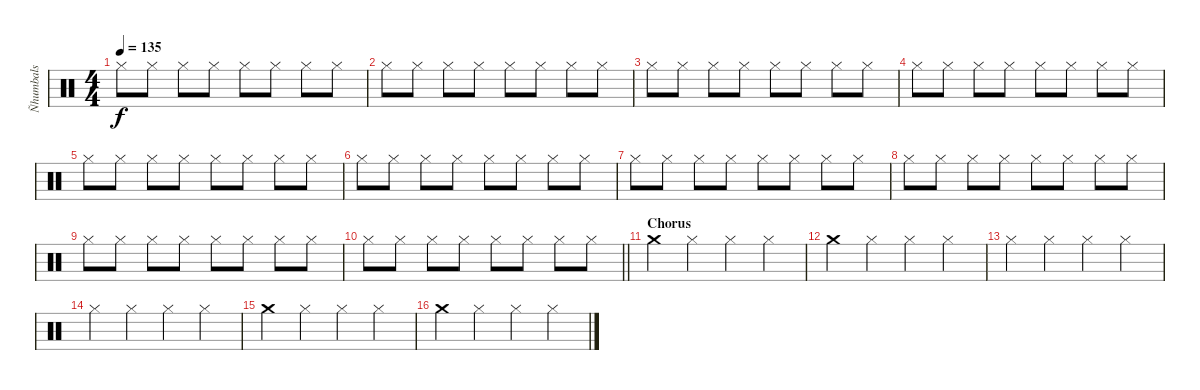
\track ("Ñhumbals" "Ñhumbals") {instrument percussion}
\staff {score}
\articulation defaults
\ts (4 4)
\tempo 135
\clef neutral
\ks c "Hi-Hat (closed)".8{dy f} "Hi-Hat (closed)".8 "Hi-Hat (closed)".8 "Hi-Hat (closed)".8 "Hi-Hat (closed)".8 "Hi-Hat (closed)".8 "Hi-Hat (closed)".8 "Hi-Hat (closed)".8
|
"Hi-Hat (closed)".8 "Hi-Hat (closed)".8 "Hi-Hat (closed)".8 "Hi-Hat (closed)".8 "Hi-Hat (closed)".8 "Hi-Hat (closed)".8 "Hi-Hat (closed)".8 "Hi-Hat (closed)".8 |
"Hi-Hat (closed)".8 "Hi-Hat (closed)".8 "Hi-Hat (closed)".8 "Hi-Hat (closed)".8 "Hi-Hat (closed)".8 "Hi-Hat (closed)".8 "Hi-Hat (closed)".8 "Hi-Hat (closed)".8 |
"Hi-Hat (closed)".8 "Hi-Hat (closed)".8 "Hi-Hat (closed)".8 "Hi-Hat (closed)".8 "Hi-Hat (closed)".8 "Hi-Hat (closed)".8 "Hi-Hat (closed)".8 "Hi-Hat (closed)".8 |
"Hi-Hat (closed)".8 "Hi-Hat (closed)".8 "Hi-Hat (closed)".8 "Hi-Hat (closed)".8 "Hi-Hat (closed)".8 "Hi-Hat (closed)".8 "Hi-Hat (closed)".8 "Hi-Hat (closed)".8 |
"Hi-Hat (closed)".8 "Hi-Hat (closed)".8 "Hi-Hat (closed)".8 "Hi-Hat (closed)".8 "Hi-Hat (closed)".8 "Hi-Hat (closed)".8 "Hi-Hat (closed)".8 "Hi-Hat (closed)".8 |
"Hi-Hat (closed)".8 "Hi-Hat (closed)".8 "Hi-Hat (closed)".8 "Hi-Hat (closed)".8 "Hi-Hat (closed)".8 "Hi-Hat (closed)".8 "Hi-Hat (closed)".8 "Hi-Hat (closed)".8 |
"Hi-Hat (closed)".8 "Hi-Hat (closed)".8 "Hi-Hat (closed)".8 "Hi-Hat (closed)".8 "Hi-Hat (closed)".8 "Hi-Hat (closed)".8 "Hi-Hat (closed)".8 "Hi-Hat (closed)".8 |
"Hi-Hat (closed)".8 "Hi-Hat (closed)".8 "Hi-Hat (closed)".8 "Hi-Hat (closed)".8 "Hi-Hat (closed)".8 "Hi-Hat (closed)".8 "Hi-Hat (closed)".8 "Hi-Hat (closed)".8 |
\barLineRight lightlight "Hi-Hat (closed)".8 "Hi-Hat (closed)".8 "Hi-Hat (closed)".8 "Hi-Hat (closed)".8 "Hi-Hat (closed)".8 "Hi-Hat (closed)".8 "Hi-Hat (closed)".8 "Hi-Hat (closed)".8
|
\section ("" "Chorus")
"Crash medium (hit)".4 "Hi-Hat (closed)".4 "Hi-Hat (closed)".4 "Hi-Hat (closed)".4 |
"Crash medium (hit)".4 "Hi-Hat (closed)".4 "Hi-Hat (closed)".4 "Hi-Hat (closed)".4 |
"Hi-Hat (closed)".4 "Hi-Hat (closed)".4 "Hi-Hat (closed)".4 "Hi-Hat (closed)".4 |
"Hi-Hat (closed)".4 "Hi-Hat (closed)".4 "Hi-Hat (closed)".4 "Hi-Hat (closed)".4 |
"Crash medium (hit)".4 "Hi-Hat (closed)".4 "Hi-Hat (closed)".4 "Hi-Hat (closed)".4 |
"Crash medium (hit)".4 "Hi-Hat (closed)".4 "Hi-Hat (closed)".4 "Hi-Hat (closed)".4
